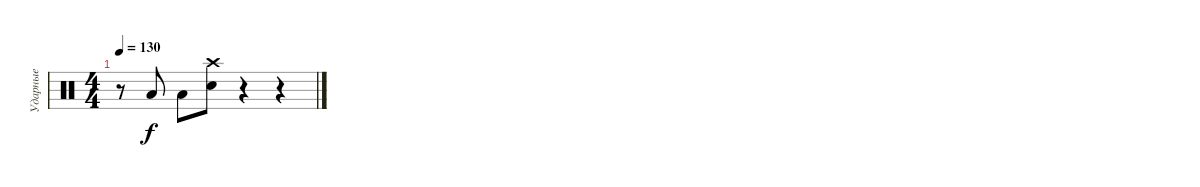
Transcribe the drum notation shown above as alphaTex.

\track ("Ударные" "Ударные") {instrument percussion}
\staff {score}
\articulation defaults
\ts (4 4)
\tempo 130
\clef neutral
\ks c
r.8{dy f} "Low Tom (hit)".8 "Low Tom (hit)".8 ("Crash high (hit)" "Electric Snare (hit)").8 r.4 r.4
